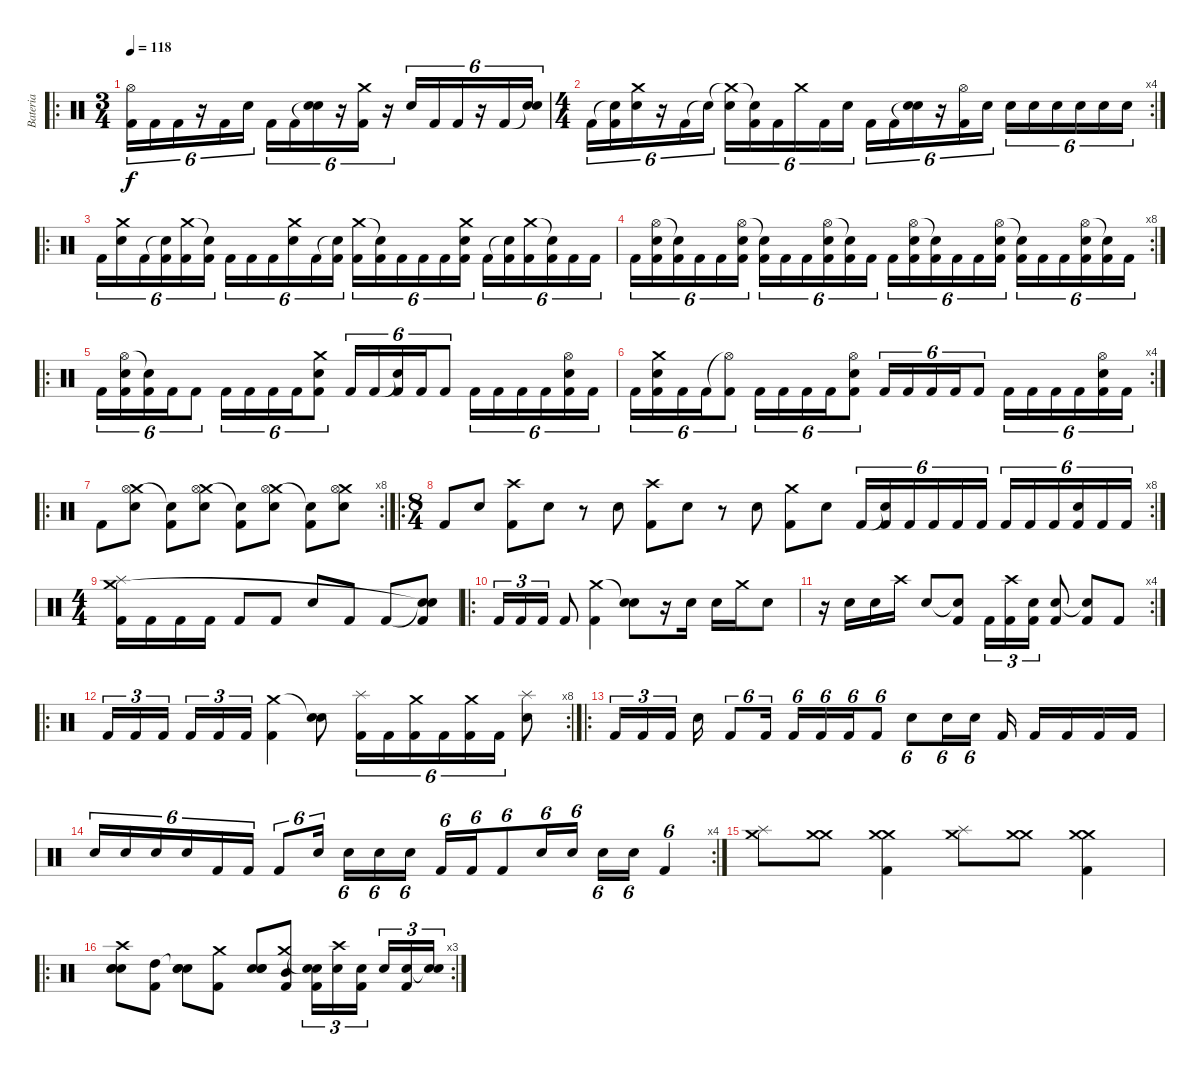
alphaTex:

\track ("Bateria" "Bateria") {instrument percussion}
\staff {score}
\articulation defaults
\ro
\ts (3 4)
\tempo 118
\clef neutral
\ks c
("Hi-Hat (open)" "Kick (hit) 2").16{tu (6 4) dy f} "Kick (hit) 2".16{tu (6 4)} "Kick (hit) 2".16{tu (6 4)} r.16{tu (6 4)} "Kick (hit) 2".16{tu (6 4)} "Snare (hit) 2".16{tu (6 4)} "Kick (hit) 2".16{tu (6 4)} "Kick (hit) 2".16{tu (6 4)} ("Snare (hit)"{t} "Snare (hit) 2").16{tu (6 4)} r.16{tu (6 4)} ("Crash medium (hit)" "Kick (hit) 2").16{tu (6 4)} r.16{tu (6 4)} "Snare (hit) 2".16{tu (6 4)} "Kick (hit) 2".16{tu (6 4)} "Kick (hit) 2".16{tu (6 4)} r.16{tu (6 4)} "Kick (hit) 2".16{tu (6 4)} ("Snare (hit)"{t} "Snare (hit) 2").16{tu (6 4)} |
\rc 4
\ts (4 4)
"Kick (hit) 2".16{tu (6 4)} ("Snare (hit)"{t} "Kick (hit) 2").16{tu (6 4)} ("Crash medium (hit)" "Snare (hit) 2").16{tu (6 4)} r.16{tu (6 4)} "Kick (hit) 2".16{tu (6 4)} "Snare (hit)"{t}.16{tu (6 4)} ("Crash medium (hit)"{t} "Snare (hit) 2").16{tu (6 4)} ("Snare (hit)"{t} "Kick (hit) 2").16{tu (6 4)} "Kick (hit) 2".16{tu (6 4)} "Crash medium (hit)".16{tu (6 4)} "Kick (hit) 2".16{tu (6 4)} "Snare (hit) 2".16{tu (6 4)} "Kick (hit) 2".16{tu (6 4)} "Kick (hit) 2".16{tu (6 4)} ("Snare (hit)"{t} "Snare (hit) 2").16{tu (6 4)} r.16{tu (6 4)} ("Hi-Hat (open)" "Kick (hit) 2").16{tu (6 4)} "Snare (hit) 2".16{tu (6 4)} "Snare (hit) 2".16{tu (6 4)} "Snare (hit) 2".16{tu (6 4)} "Snare (hit) 2".16{tu (6 4)} "Snare (hit) 2".16{tu (6 4)} "Snare (hit) 2".16{tu (6 4)} "Snare (hit) 2".16{tu (6 4)} |
\ro "Kick (hit) 2".16{tu (6 4)}
("Crash medium (hit)" "Snare (hit) 2").16{tu (6 4)} "Kick (hit) 2".16{tu (6 4)} ("Snare (hit)"{t} "Kick (hit) 2").16{tu (6 4)} ("Crash medium (hit)" "Kick (hit) 2").16{tu (6 4)} ("Snare (hit)"{t} "Kick (hit) 2").16{tu (6 4)} "Kick (hit) 2".16{tu (6 4)} "Kick (hit) 2".16{tu (6 4)} "Kick (hit) 2".16{tu (6 4)} ("Crash medium (hit)" "Snare (hit) 2").16{tu (6 4)} "Kick (hit) 2".16{tu (6 4)} ("Snare (hit)"{t} "Kick (hit) 2").16{tu (6 4)} ("Crash medium (hit)" "Kick (hit) 2").16{tu (6 4)} ("Snare (hit)"{t} "Kick (hit) 2").16{tu (6 4)} "Kick (hit) 2".16{tu (6 4)} "Kick (hit) 2".16{tu (6 4)} "Kick (hit) 2".16{tu (6 4)} ("Crash medium (hit)" "Snare (hit) 2" "Kick (hit) 2").16{tu (6 4)} "Kick (hit) 2".16{tu (6 4)} ("Snare (hit)"{t} "Kick (hit) 2").16{tu (6 4)} ("Crash medium (hit)" "Kick (hit) 2").16{tu (6 4)} ("Snare (hit)"{t} "Kick (hit) 2").16{tu (6 4)} "Kick (hit) 2".16{tu (6 4)} "Kick (hit) 2".16{tu (6 4)} |
\rc 8 "Kick (hit) 2".16{tu (6 4)}
("Hi-Hat (open)" "Snare (hit) 2" "Kick (hit) 2").16{tu (6 4)} ("Snare (hit)"{t} "Kick (hit) 2").16{tu (6 4)} "Kick (hit) 2".16{tu (6 4)} "Kick (hit) 2".16{tu (6 4)} ("Hi-Hat (open)" "Snare (hit) 2" "Kick (hit) 2").16{tu (6 4)} ("Snare (hit)"{t} "Kick (hit) 2").16{tu (6 4)} "Kick (hit) 2".16{tu (6 4)} "Kick (hit) 2".16{tu (6 4)} ("Hi-Hat (open)" "Snare (hit) 2" "Kick (hit) 2").16{tu (6 4)} ("Snare (hit)"{t} "Kick (hit) 2").16{tu (6 4)} "Kick (hit) 2".16{tu (6 4)} "Kick (hit) 2".16{tu (6 4)} ("Hi-Hat (open)" "Snare (hit) 2" "Kick (hit) 2").16{tu (6 4)} ("Snare (hit)"{t} "Kick (hit) 2").16{tu (6 4)} "Kick (hit) 2".16{tu (6 4)} "Kick (hit) 2".16{tu (6 4)} ("Hi-Hat (open)" "Snare (hit) 2" "Kick (hit) 2").16{tu (6 4)} ("Snare (hit)"{t} "Kick (hit) 2").16{tu (6 4)} "Kick (hit) 2".16{tu (6 4)} "Kick (hit) 2".16{tu (6 4)} ("Hi-Hat (open)" "Snare (hit) 2" "Kick (hit) 2").16{tu (6 4)} ("Snare (hit)"{t} "Kick (hit) 2").16{tu (6 4)} "Kick (hit) 2".16{tu (6 4)} |
\ro "Kick (hit) 2".16{tu (6 4)}
("Hi-Hat (open)" "Snare (hit) 2" "Kick (hit) 2").16{tu (6 4)} ("Snare (hit)"{t} "Kick (hit) 2").16{tu (6 4)} "Kick (hit) 2".16{tu (6 4)} "Kick (hit) 2".8{tu (6 4)} "Kick (hit) 2".16{tu (6 4)} "Kick (hit) 2".16{tu (6 4)} "Kick (hit) 2".16{tu (6 4)} "Kick (hit) 2".16{tu (6 4)} ("Crash medium (hit)" "Snare (hit) 2" "Kick (hit) 2").8{tu (6 4)} "Kick (hit) 2".16{tu (6 4)} "Kick (hit) 2".16{tu (6 4)} ("Snare (hit)"{t} "Kick (hit) 2").16{tu (6 4)} "Kick (hit) 2".16{tu (6 4)} "Kick (hit) 2".8{tu (6 4)} "Kick (hit) 2".16{tu (6 4)} "Kick (hit) 2".16{tu (6 4)} "Kick (hit) 2".16{tu (6 4)} "Kick (hit) 2".16{tu (6 4)} ("Hi-Hat (open)" "Snare (hit) 2" "Kick (hit) 2").16{tu (6 4)} "Kick (hit) 2".16{tu (6 4)} |
\rc 4 "Kick (hit) 2".16{tu (6 4)}
("Crash medium (hit)" "Snare (hit) 2" "Kick (hit) 2").16{tu (6 4)} "Kick (hit) 2".16{tu (6 4)} "Kick (hit) 2".16{tu (6 4)} ("Hi-Hat (open)"{t} "Kick (hit) 2").8{tu (6 4)} "Kick (hit) 2".16{tu (6 4)} "Kick (hit) 2".16{tu (6 4)} "Kick (hit) 2".16{tu (6 4)} "Kick (hit) 2".16{tu (6 4)} ("Hi-Hat (open)" "Snare (hit) 2" "Kick (hit) 2").8{tu (6 4)} "Kick (hit) 2".16{tu (6 4)} "Kick (hit) 2".16{tu (6 4)} "Kick (hit) 2".16{tu (6 4)} "Kick (hit) 2".16{tu (6 4)} "Kick (hit) 2".8{tu (6 4)} "Kick (hit) 2".16{tu (6 4)} "Kick (hit) 2".16{tu (6 4)} "Kick (hit) 2".16{tu (6 4)} "Kick (hit) 2".16{tu (6 4)} ("Hi-Hat (open)" "Snare (hit) 2" "Kick (hit) 2").16{tu (6 4)} "Kick (hit) 2".16{tu (6 4)} |
\ro
\rc 8 "Kick (hit) 2".8
("Crash medium (hit)" "Hi-Hat (open)" "Snare (hit) 2").8 ("Snare (hit)"{t} "Kick (hit) 2").8 ("Crash medium (hit)" "Hi-Hat (open)" "Snare (hit) 2").8 ("Snare (hit)"{t} "Kick (hit) 2").8 ("Crash medium (hit)" "Hi-Hat (open)" "Snare (hit) 2").8 ("Snare (hit)"{t} "Kick (hit) 2").8 ("Crash medium (hit)" "Hi-Hat (open)" "Snare (hit) 2").8 |
\ro
\rc 8
\ts (8 4)
"Kick (hit) 2".8 "Snare (hit) 2".8 ("Crash high (hit)" "Kick (hit) 2").8 "Snare (hit) 2".8 r.8 "Snare (hit) 2".8 ("Crash high (hit)" "Kick (hit) 2").8 "Snare (hit) 2".8 r.8 "Snare (hit) 2".8 ("Crash medium (hit)" "Kick (hit) 2").8 "Snare (hit) 2".8 "Kick (hit) 2".16{tu (6 4)} ("Snare (hit)"{t} "Kick (hit) 2").16{tu (6 4)} "Kick (hit) 2".16{tu (6 4)} "Kick (hit) 2".16{tu (6 4)} "Kick (hit) 2".16{tu (6 4)} "Kick (hit) 2".16{tu (6 4)} "Kick (hit) 2".16{tu (6 4)} "Kick (hit) 2".16{tu (6 4)} "Kick (hit) 2".16{tu (6 4)} ("Electric Snare (hit)" "Kick (hit) 2").16{tu (6 4)} "Kick (hit) 2".16{tu (6 4)} "Kick (hit) 2".16{tu (6 4)} |
\ts (4 4)
("Splash (hit)" "Crash medium (hit)" "Kick (hit) 2").16 "Kick (hit) 2".16 "Kick (hit) 2".16 "Kick (hit) 2".16 "Kick (hit) 2".8 "Kick (hit) 2".8 "Snare (hit) 2".8 "Kick (hit) 2".8 "Kick (hit) 2".8 ("Snare (hit)"{t} "Snare (hit)"{t} "Kick (hit) 2").8 |
\ro "Kick (hit) 2".16{tu (3 2)} "Kick (hit) 2".16{tu (3 2)} "Kick (hit) 2".16{tu (3 2)} "Kick (hit) 2".8
("Crash medium (hit)" "Kick (hit) 2").4 ("Snare (hit)"{t} "Snare (hit) 2").8 r.16 "Snare (hit) 2".16 "Snare (hit) 2".16 "Crash medium (hit)".16 "Snare (hit) 2".8 |
\rc 4
r.16 "Snare (hit) 2".16 "Snare (hit) 2".16 "Crash high (hit)".16 "Snare (hit) 2".8 ("Snare (hit)"{t} "Kick (hit) 2").8 "Kick (hit) 2".16{tu (3 2)} ("Crash high (hit)" "Kick (hit) 2").16{tu (3 2)} ("Snare (hit) 2" "Kick (hit) 2").16{tu (3 2)} ("Snare (hit) 2" "Kick (hit) 2").8 ("Snare (hit)"{t} "Kick (hit) 2").8 "Kick (hit) 2".8 |
\ro
\rc 8 "Kick (hit) 2".16{tu (3 2)} "Kick (hit) 2".16{tu (3 2)} "Kick (hit) 2".16{tu (3 2)} "Kick (hit) 2".16{tu (3 2)} "Kick (hit) 2".16{tu (3 2)} "Kick (hit) 2".16{tu (3 2)}
("Crash medium (hit)" "Kick (hit) 2").4 ("Snare (hit)"{t} "Snare (hit) 2").8 ("Splash (hit)" "Kick (hit) 2").16{tu (6 4)} "Kick (hit) 2".16{tu (6 4)} ("Crash medium (hit)" "Kick (hit) 2").16{tu (6 4)} "Kick (hit) 2".16{tu (6 4)} ("Crash medium (hit)" "Kick (hit) 2").16{tu (6 4)} "Kick (hit) 2".16{tu (6 4)} ("Splash (hit)" "Snare (hit) 2").8 |
\ro "Kick (hit) 2".16{tu (3 2)} "Kick (hit) 2".16{tu (3 2)} "Kick (hit) 2".16{tu (3 2)} "Snare (hit) 2".16 "Kick (hit) 2".8{tu (6 4)} "Kick (hit) 2".16{tu (6 4)} "Kick (hit) 2".16{tu (6 4)} "Kick (hit) 2".16{tu (6 4)} "Kick (hit) 2".16{tu (6 4)} "Kick (hit) 2".8{tu (6 4)} "Snare (hit) 2".8{tu (6 4)} "Snare (hit) 2".16{tu (6 4)} "Snare (hit) 2".16{tu (6 4)} "Kick (hit) 2".16 "Kick (hit) 2".16 "Kick (hit) 2".16 "Kick (hit) 2".16 "Kick (hit) 2".16
|
\rc 4 "Snare (hit) 2".16{tu (6 4)} "Snare (hit) 2".16{tu (6 4)} "Snare (hit) 2".16{tu (6 4)} "Snare (hit) 2".16{tu (6 4)} "Kick (hit) 2".16{tu (6 4)} "Kick (hit) 2".16{tu (6 4)} "Kick (hit) 2".8{tu (6 4)} "Snare (hit) 2".16{tu (6 4)} "Snare (hit) 2".16{tu (6 4)} "Snare (hit) 2".16{tu (6 4)} "Snare (hit) 2".16{tu (6 4)} "Kick (hit) 2".16{tu (6 4)} "Kick (hit) 2".16{tu (6 4)} "Kick (hit) 2".8{tu (6 4)} "Snare (hit) 2".16{tu (6 4)} "Snare (hit) 2".16{tu (6 4)} "Snare (hit) 2".16{tu (6 4)} "Snare (hit) 2".16{tu (6 4)} "Kick (hit) 2".4{tu (6 4)}
|
("Crash medium (hit)" "Splash (hit)").8 ("Crash medium (hit)" "Crash medium (hit)").8 ("Crash medium (hit)" "Crash medium (hit)" "Kick (hit) 2").4 ("Crash medium (hit)" "Splash (hit)").8 ("Crash medium (hit)" "Crash medium (hit)").8 ("Crash medium (hit)" "Crash medium (hit)" "Kick (hit) 2").4 |
\ro
\rc 3
("Snare (hit) 2" "Crash high (hit)" "Snare (hit) 2" "Snare (hit) 2").8{bd 480} ("High Tom (hit)" "Kick (hit) 2").8 ("Snare (hit)"{t} "Snare (hit) 2" "Snare (hit) 2").8{bd 480} ("Crash medium (hit)" "Kick (hit) 2").8 ("Snare (hit) 2" "Snare (hit) 2" "Snare (hit) 2").8{bd 480} ("Crash medium (hit)" "Mid Tom (hit)" "Kick (hit) 2").8 ("Snare (hit)"{t} "Snare (hit) 2" "Kick (hit) 2").16{tu (3 2)} ("Crash high (hit)" "Snare (hit) 2").16{tu (3 2)} ("Snare (hit) 2" "Kick (hit) 2").16{tu (3 2)} "Snare (hit) 2".16{tu (3 2)} ("Snare (hit) 2" "Kick (hit) 2").16{tu (3 2)} ("Snare (hit)"{t} "Snare (hit) 2").16{tu (3 2)}
